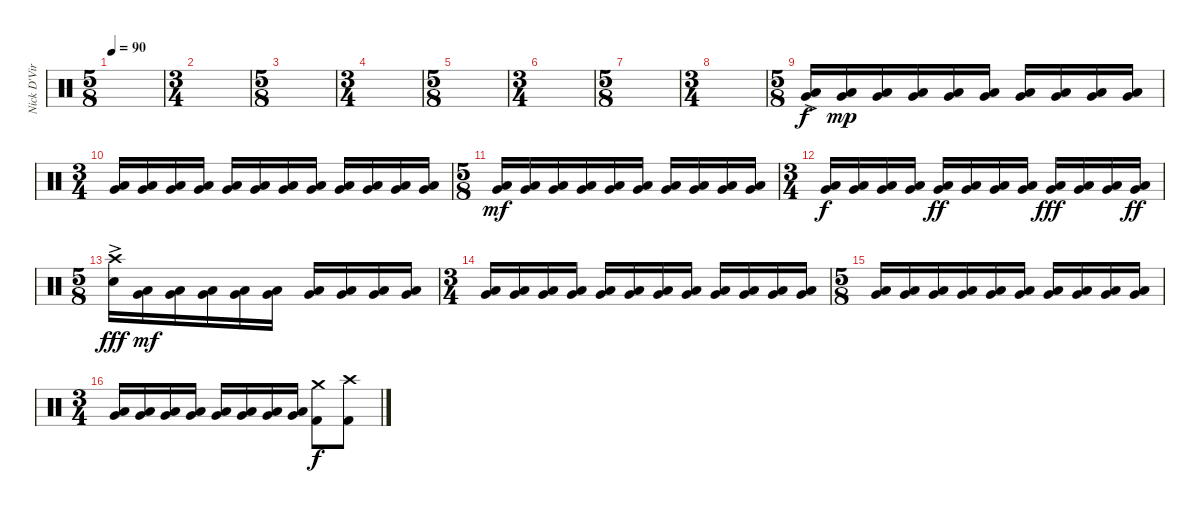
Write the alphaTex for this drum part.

\track ("Nick D'Virgilio" "Nick D'Vir") {instrument percussion}
\staff {score}
\articulation defaults
\ts (5 8)
\tempo 90
\clef neutral
\ks c
|
\ts (3 4)
|
\ts (5 8)
|
\ts (3 4)
|
\ts (5 8)
|
\ts (3 4)
|
\ts (5 8)
|
\ts (3 4)
|
\ts (5 8)
("Low Tom (hit)"{ac} "Very Low Tom (hit)"{ac}).16 ("Low Tom (hit)" "Very Low Tom (hit)").16{dy mp} ("Low Tom (hit)" "Very Low Tom (hit)").16 ("Low Tom (hit)" "Very Low Tom (hit)").16 ("Low Tom (hit)" "Very Low Tom (hit)").16 ("Low Tom (hit)" "Very Low Tom (hit)").16 ("Low Tom (hit)" "Very Low Tom (hit)").16 ("Low Tom (hit)" "Very Low Tom (hit)").16 ("Low Tom (hit)" "Very Low Tom (hit)").16 ("Low Tom (hit)" "Very Low Tom (hit)").16 |
\ts (3 4)
("Low Tom (hit)" "Very Low Tom (hit)").16 ("Low Tom (hit)" "Very Low Tom (hit)").16 ("Low Tom (hit)" "Very Low Tom (hit)").16 ("Low Tom (hit)" "Very Low Tom (hit)").16 ("Low Tom (hit)" "Very Low Tom (hit)").16 ("Low Tom (hit)" "Very Low Tom (hit)").16 ("Low Tom (hit)" "Very Low Tom (hit)").16 ("Low Tom (hit)" "Very Low Tom (hit)").16 ("Low Tom (hit)" "Very Low Tom (hit)").16 ("Low Tom (hit)" "Very Low Tom (hit)").16 ("Low Tom (hit)" "Very Low Tom (hit)").16 ("Low Tom (hit)" "Very Low Tom (hit)").16 |
\ts (5 8)
("Low Tom (hit)" "Very Low Tom (hit)").16{dy mf} ("Low Tom (hit)" "Very Low Tom (hit)").16 ("Low Tom (hit)" "Very Low Tom (hit)").16 ("Low Tom (hit)" "Very Low Tom (hit)").16 ("Low Tom (hit)" "Very Low Tom (hit)").16 ("Low Tom (hit)" "Very Low Tom (hit)").16 ("Low Tom (hit)" "Very Low Tom (hit)").16 ("Low Tom (hit)" "Very Low Tom (hit)").16 ("Low Tom (hit)" "Very Low Tom (hit)").16 ("Low Tom (hit)" "Very Low Tom (hit)").16 |
\ts (3 4)
("Low Tom (hit)" "Very Low Tom (hit)").16{dy f} ("Low Tom (hit)" "Very Low Tom (hit)").16 ("Low Tom (hit)" "Very Low Tom (hit)").16 ("Low Tom (hit)" "Very Low Tom (hit)").16 ("Low Tom (hit)" "Very Low Tom (hit)").16{dy ff} ("Low Tom (hit)" "Very Low Tom (hit)").16 ("Low Tom (hit)" "Very Low Tom (hit)").16 ("Low Tom (hit)" "Very Low Tom (hit)").16 ("Low Tom (hit)" "Very Low Tom (hit)").16{dy fff} ("Low Tom (hit)" "Very Low Tom (hit)").16 ("Low Tom (hit)" "Very Low Tom (hit)").16 ("Low Tom (hit)" "Very Low Tom (hit)").16{dy ff} |
\ts (5 8)
("Crash high (hit)" "Electric Snare (hit)"{ac}).16{dy fff} ("Low Tom (hit)" "Very Low Tom (hit)").16{dy mf} ("Low Tom (hit)" "Very Low Tom (hit)").16 ("Low Tom (hit)" "Very Low Tom (hit)").16 ("Low Tom (hit)" "Very Low Tom (hit)").16 ("Low Tom (hit)" "Very Low Tom (hit)").16 ("Low Tom (hit)" "Very Low Tom (hit)").16 ("Low Tom (hit)" "Very Low Tom (hit)").16 ("Low Tom (hit)" "Very Low Tom (hit)").16 ("Low Tom (hit)" "Very Low Tom (hit)").16 |
\ts (3 4)
("Low Tom (hit)" "Very Low Tom (hit)").16 ("Low Tom (hit)" "Very Low Tom (hit)").16 ("Low Tom (hit)" "Very Low Tom (hit)").16 ("Low Tom (hit)" "Very Low Tom (hit)").16 ("Low Tom (hit)" "Very Low Tom (hit)").16 ("Low Tom (hit)" "Very Low Tom (hit)").16 ("Low Tom (hit)" "Very Low Tom (hit)").16 ("Low Tom (hit)" "Very Low Tom (hit)").16 ("Low Tom (hit)" "Very Low Tom (hit)").16 ("Low Tom (hit)" "Very Low Tom (hit)").16 ("Low Tom (hit)" "Very Low Tom (hit)").16 ("Low Tom (hit)" "Very Low Tom (hit)").16 |
\ts (5 8)
("Low Tom (hit)" "Very Low Tom (hit)").16 ("Low Tom (hit)" "Very Low Tom (hit)").16 ("Low Tom (hit)" "Very Low Tom (hit)").16 ("Low Tom (hit)" "Very Low Tom (hit)").16 ("Low Tom (hit)" "Very Low Tom (hit)").16 ("Low Tom (hit)" "Very Low Tom (hit)").16 ("Low Tom (hit)" "Very Low Tom (hit)").16 ("Low Tom (hit)" "Very Low Tom (hit)").16 ("Low Tom (hit)" "Very Low Tom (hit)").16 ("Low Tom (hit)" "Very Low Tom (hit)").16 |
\ts (3 4)
("Low Tom (hit)" "Very Low Tom (hit)").16 ("Low Tom (hit)" "Very Low Tom (hit)").16 ("Low Tom (hit)" "Very Low Tom (hit)").16 ("Low Tom (hit)" "Very Low Tom (hit)").16 ("Low Tom (hit)" "Very Low Tom (hit)").16 ("Low Tom (hit)" "Very Low Tom (hit)").16 ("Low Tom (hit)" "Very Low Tom (hit)").16 ("Low Tom (hit)" "Very Low Tom (hit)").16 ("Crash medium (hit)" "Kick (hit) 2").8{dy f} ("Crash high (hit)" "Kick (hit) 2").8
